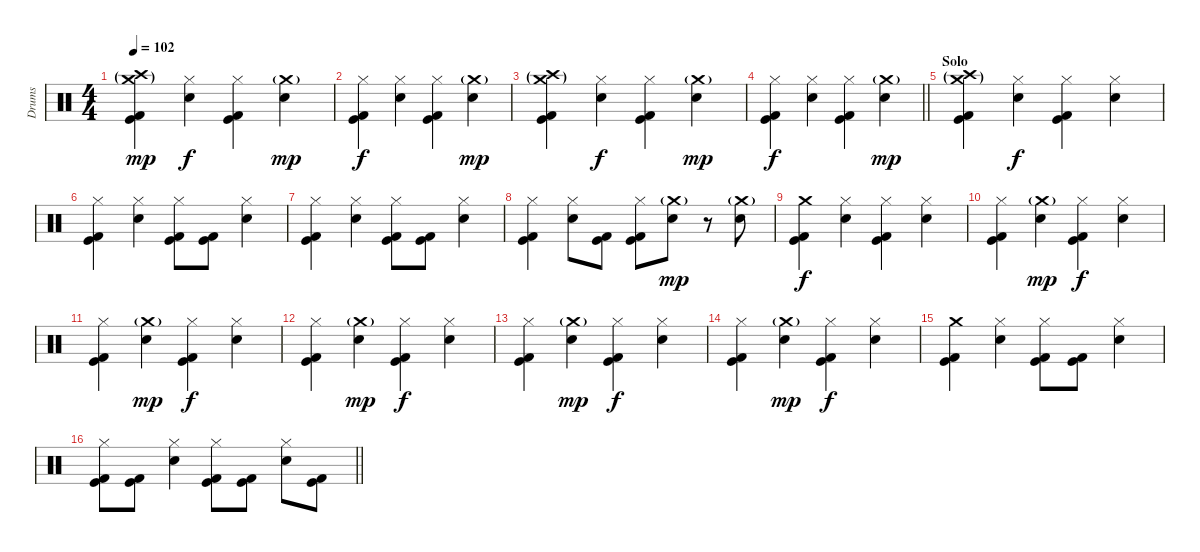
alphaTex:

\track ("Drums" "Drums") {instrument percussion}
\staff {score}
\articulation defaults
\ts (4 4)
\tempo 102
\clef neutral
\ks c
("Crash high (hit)"{g} "Crash medium (hit)"{g} "Kick (hit)" "Kick (hit) 2").4{dy mp} ("Hi-Hat (closed)" "Electric Snare (hit)").4{dy f} ("Hi-Hat (closed)" "Kick (hit)" "Kick (hit) 2").4 ("Crash medium (hit)"{g} "Electric Snare (hit)").4{dy mp} |
("Hi-Hat (closed)" "Kick (hit)" "Kick (hit) 2").4{dy f} ("Hi-Hat (closed)" "Electric Snare (hit)").4 ("Hi-Hat (closed)" "Kick (hit)" "Kick (hit) 2").4 ("Crash medium (hit)"{g} "Electric Snare (hit)").4{dy mp} |
("Crash high (hit)"{g} "Crash medium (hit)"{g} "Kick (hit)" "Kick (hit) 2").4 ("Hi-Hat (closed)" "Electric Snare (hit)").4{dy f} ("Hi-Hat (closed)" "Kick (hit)" "Kick (hit) 2").4 ("Crash medium (hit)"{g} "Electric Snare (hit)").4{dy mp} |
\barLineRight lightlight
("Hi-Hat (closed)" "Kick (hit)" "Kick (hit) 2").4{dy f} ("Hi-Hat (closed)" "Electric Snare (hit)").4 ("Hi-Hat (closed)" "Kick (hit)" "Kick (hit) 2").4 ("Crash medium (hit)"{g} "Electric Snare (hit)").4{dy mp} |
\section ("" "Solo")
("Crash high (hit)"{g} "Crash medium (hit)"{g} "Kick (hit)" "Kick (hit) 2").4 ("Hi-Hat (closed)" "Electric Snare (hit)").4{dy f} ("Hi-Hat (closed)" "Kick (hit)" "Kick (hit) 2").4 ("Hi-Hat (closed)" "Electric Snare (hit)").4 |
("Hi-Hat (closed)" "Kick (hit)" "Kick (hit) 2").4 ("Hi-Hat (closed)" "Electric Snare (hit)").4 ("Hi-Hat (closed)" "Kick (hit)" "Kick (hit) 2").8 ("Kick (hit)" "Kick (hit) 2").8 ("Hi-Hat (closed)" "Electric Snare (hit)").4 |
("Hi-Hat (closed)" "Kick (hit)" "Kick (hit) 2").4 ("Hi-Hat (closed)" "Electric Snare (hit)").4 ("Hi-Hat (closed)" "Kick (hit)" "Kick (hit) 2").8 ("Kick (hit)" "Kick (hit) 2").8 ("Hi-Hat (closed)" "Electric Snare (hit)").4 |
("Hi-Hat (closed)" "Kick (hit)" "Kick (hit) 2").4 ("Hi-Hat (closed)" "Electric Snare (hit)").8 ("Kick (hit)" "Kick (hit) 2").8 ("Hi-Hat (closed)" "Kick (hit)" "Kick (hit) 2").8 ("Crash medium (hit)"{g} "Electric Snare (hit)").8{dy mp} r.8 ("Crash medium (hit)"{g} "Electric Snare (hit)").8 |
("Crash medium (hit)" "Kick (hit)" "Kick (hit) 2").4{dy f} ("Hi-Hat (closed)" "Electric Snare (hit)").4 ("Hi-Hat (closed)" "Kick (hit)" "Kick (hit) 2").4 ("Hi-Hat (closed)" "Electric Snare (hit)").4 |
("Hi-Hat (closed)" "Kick (hit)" "Kick (hit) 2").4 ("Crash medium (hit)"{g} "Electric Snare (hit)").4{dy mp} ("Hi-Hat (closed)" "Kick (hit)" "Kick (hit) 2").4{dy f} ("Hi-Hat (closed)" "Electric Snare (hit)").4 |
("Hi-Hat (closed)" "Kick (hit)" "Kick (hit) 2").4 ("Crash medium (hit)"{g} "Electric Snare (hit)").4{dy mp} ("Hi-Hat (closed)" "Kick (hit)" "Kick (hit) 2").4{dy f} ("Hi-Hat (closed)" "Electric Snare (hit)").4 |
("Hi-Hat (closed)" "Kick (hit)" "Kick (hit) 2").4 ("Crash medium (hit)"{g} "Electric Snare (hit)").4{dy mp} ("Hi-Hat (closed)" "Kick (hit)" "Kick (hit) 2").4{dy f} ("Hi-Hat (closed)" "Electric Snare (hit)").4 |
("Hi-Hat (closed)" "Kick (hit)" "Kick (hit) 2").4 ("Crash medium (hit)"{g} "Electric Snare (hit)").4{dy mp} ("Hi-Hat (closed)" "Kick (hit)" "Kick (hit) 2").4{dy f} ("Hi-Hat (closed)" "Electric Snare (hit)").4 |
("Hi-Hat (closed)" "Kick (hit)" "Kick (hit) 2").4 ("Crash medium (hit)"{g} "Electric Snare (hit)").4{dy mp} ("Hi-Hat (closed)" "Kick (hit)" "Kick (hit) 2").4{dy f} ("Hi-Hat (closed)" "Electric Snare (hit)").4 |
("Crash medium (hit)" "Kick (hit)" "Kick (hit) 2").4 ("Hi-Hat (closed)" "Electric Snare (hit)").4 ("Hi-Hat (closed)" "Kick (hit)" "Kick (hit) 2").8 ("Kick (hit)" "Kick (hit) 2").8 ("Hi-Hat (closed)" "Electric Snare (hit)").4 |
\barLineRight lightlight
("Hi-Hat (closed)" "Kick (hit)" "Kick (hit) 2").8 ("Kick (hit)" "Kick (hit) 2").8 ("Hi-Hat (closed)" "Electric Snare (hit)").4 ("Hi-Hat (closed)" "Kick (hit)" "Kick (hit) 2").8 ("Kick (hit)" "Kick (hit) 2").8 ("Hi-Hat (closed)" "Electric Snare (hit)").8 ("Kick (hit)" "Kick (hit) 2").8
